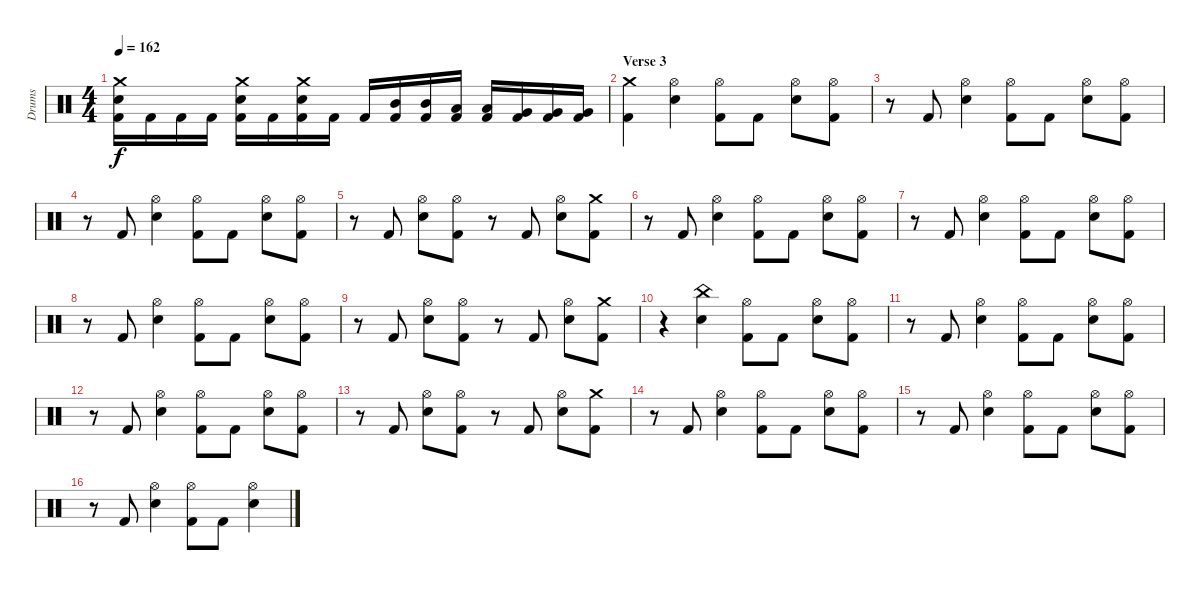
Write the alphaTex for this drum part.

\track ("Drums" "Drums") {instrument percussion}
\staff {score}
\articulation defaults
\ts (4 4)
\tempo 162
\clef neutral
\ks c
("Crash medium (hit)" "Snare (hit) 2" "Kick (hit) 2").16{dy f} "Kick (hit) 2".16 "Kick (hit) 2".16 "Kick (hit) 2".16 ("Crash medium (hit)" "Snare (hit) 2" "Kick (hit) 2").16 "Kick (hit) 2".16 ("Crash medium (hit)" "Snare (hit) 2" "Kick (hit) 2").16 "Kick (hit) 2".16 "Kick (hit) 2".16 ("Mid Tom (hit)" "Kick (hit) 2").16 ("Mid Tom (hit)" "Kick (hit) 2").16 ("Low Tom (hit)" "Kick (hit) 2").16 ("Low Tom (hit)" "Kick (hit) 2").16 ("Very Low Tom (hit)" "Kick (hit) 2").16 ("Very Low Tom (hit)" "Kick (hit) 2").16 ("Very Low Tom (hit)" "Kick (hit) 2").16 |
\section ("" "Verse 3")
("Crash medium (hit)" "Kick (hit) 2").4 ("Hi-Hat (open)" "Snare (hit) 2").4 ("Hi-Hat (open)" "Kick (hit) 2").8 "Kick (hit) 2".8 ("Hi-Hat (open)" "Snare (hit) 2").8 ("Hi-Hat (open)" "Kick (hit) 2").8 |
r.8 "Kick (hit) 2".8 ("Hi-Hat (open)" "Snare (hit) 2").4 ("Hi-Hat (open)" "Kick (hit) 2").8 "Kick (hit) 2".8 ("Hi-Hat (open)" "Snare (hit) 2").8 ("Hi-Hat (open)" "Kick (hit) 2").8 |
r.8 "Kick (hit) 2".8 ("Hi-Hat (open)" "Snare (hit) 2").4 ("Hi-Hat (open)" "Kick (hit) 2").8 "Kick (hit) 2".8 ("Hi-Hat (open)" "Snare (hit) 2").8 ("Hi-Hat (open)" "Kick (hit) 2").8 |
r.8 "Kick (hit) 2".8 ("Hi-Hat (open)" "Snare (hit) 2").8 ("Hi-Hat (open)" "Kick (hit) 2").8 r.8 "Kick (hit) 2".8 ("Hi-Hat (open)" "Snare (hit) 2").8 ("Crash medium (hit)" "Kick (hit) 2").8 |
r.8 "Kick (hit) 2".8 ("Hi-Hat (open)" "Snare (hit) 2").4 ("Hi-Hat (open)" "Kick (hit) 2").8 "Kick (hit) 2".8 ("Hi-Hat (open)" "Snare (hit) 2").8 ("Hi-Hat (open)" "Kick (hit) 2").8 |
r.8 "Kick (hit) 2".8 ("Hi-Hat (open)" "Snare (hit) 2").4 ("Hi-Hat (open)" "Kick (hit) 2").8 "Kick (hit) 2".8 ("Hi-Hat (open)" "Snare (hit) 2").8 ("Hi-Hat (open)" "Kick (hit) 2").8 |
r.8 "Kick (hit) 2".8 ("Hi-Hat (open)" "Snare (hit) 2").4 ("Hi-Hat (open)" "Kick (hit) 2").8 "Kick (hit) 2".8 ("Hi-Hat (open)" "Snare (hit) 2").8 ("Hi-Hat (open)" "Kick (hit) 2").8 |
r.8 "Kick (hit) 2".8 ("Hi-Hat (open)" "Snare (hit) 2").8 ("Hi-Hat (open)" "Kick (hit) 2").8 r.8 "Kick (hit) 2".8 ("Hi-Hat (open)" "Snare (hit) 2").8 ("Crash medium (hit)" "Kick (hit) 2").8 |
r.4 ("China (hit)" "Snare (hit) 2").4 ("Hi-Hat (open)" "Kick (hit) 2").8 "Kick (hit) 2".8 ("Hi-Hat (open)" "Snare (hit) 2").8 ("Hi-Hat (open)" "Kick (hit) 2").8 |
r.8 "Kick (hit) 2".8 ("Hi-Hat (open)" "Snare (hit) 2").4 ("Hi-Hat (open)" "Kick (hit) 2").8 "Kick (hit) 2".8 ("Hi-Hat (open)" "Snare (hit) 2").8 ("Hi-Hat (open)" "Kick (hit) 2").8 |
r.8 "Kick (hit) 2".8 ("Hi-Hat (open)" "Snare (hit) 2").4 ("Hi-Hat (open)" "Kick (hit) 2").8 "Kick (hit) 2".8 ("Hi-Hat (open)" "Snare (hit) 2").8 ("Hi-Hat (open)" "Kick (hit) 2").8 |
r.8 "Kick (hit) 2".8 ("Hi-Hat (open)" "Snare (hit) 2").8 ("Hi-Hat (open)" "Kick (hit) 2").8 r.8 "Kick (hit) 2".8 ("Hi-Hat (open)" "Snare (hit) 2").8 ("Crash medium (hit)" "Kick (hit) 2").8 |
r.8 "Kick (hit) 2".8 ("Hi-Hat (open)" "Snare (hit) 2").4 ("Hi-Hat (open)" "Kick (hit) 2").8 "Kick (hit) 2".8 ("Hi-Hat (open)" "Snare (hit) 2").8 ("Hi-Hat (open)" "Kick (hit) 2").8 |
r.8 "Kick (hit) 2".8 ("Hi-Hat (open)" "Snare (hit) 2").4 ("Hi-Hat (open)" "Kick (hit) 2").8 "Kick (hit) 2".8 ("Hi-Hat (open)" "Snare (hit) 2").8 ("Hi-Hat (open)" "Kick (hit) 2").8 |
r.8 "Kick (hit) 2".8 ("Hi-Hat (open)" "Snare (hit) 2").4 ("Hi-Hat (open)" "Kick (hit) 2").8 "Kick (hit) 2".8 ("Hi-Hat (open)" "Snare (hit) 2").4
